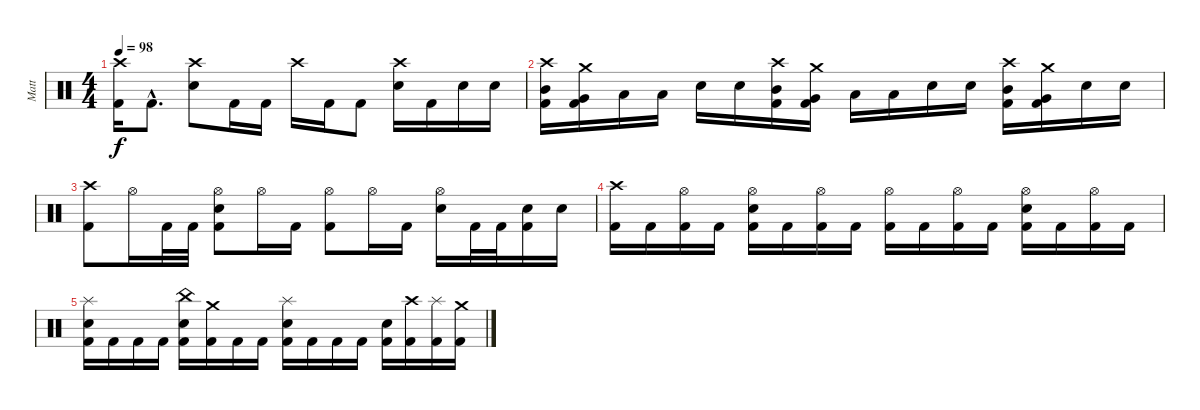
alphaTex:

\track ("Matt" "Matt") {instrument percussion}
\staff {score}
\articulation defaults
\ts (4 4)
\tempo 98
\clef neutral
\ks c
("Crash high (hit)" "Kick (hit) 2").16{dy f} "Kick (hit) 2"{hac}.8{d} ("Crash high (hit)" "Electric Snare (hit)").8 "Kick (hit) 2".16 "Kick (hit) 2".16 "Crash high (hit)".16 "Kick (hit) 2".16 "Kick (hit) 2".8 ("Crash high (hit)" "Electric Snare (hit)").16 "Kick (hit) 2".16 "Electric Snare (hit)".16 "Electric Snare (hit)".16 |
("Crash high (hit)" "Mid Tom (hit)" "Kick (hit) 2").16 ("Crash medium (hit)" "Very Low Tom (hit)" "Kick (hit) 2").16 "Low Floor Tom (hit)".16 "Low Tom (hit)".16 "Electric Snare (hit)".16 "Electric Snare (hit)".16 ("Crash high (hit)" "Mid Tom (hit)" "Kick (hit) 2").16 ("Crash medium (hit)" "Very Low Tom (hit)" "Kick (hit) 2").16 "Low Floor Tom (hit)".16 "Low Tom (hit)".16 "Electric Snare (hit)".16 "Electric Snare (hit)".16 ("Crash high (hit)" "Mid Tom (hit)" "Kick (hit) 2").16 ("Crash medium (hit)" "Very Low Tom (hit)" "Kick (hit) 2").16 "Electric Snare (hit)".16 "Electric Snare (hit)".16 |
("Crash high (hit)" "Kick (hit) 2").8 "Hi-Hat (open)".16 "Kick (hit) 2".32 "Kick (hit) 2".32 ("Hi-Hat (open)" "Electric Snare (hit)" "Kick (hit) 2").8 "Hi-Hat (open)".16 "Kick (hit) 2".16 ("Hi-Hat (open)" "Kick (hit) 2").8 "Hi-Hat (open)".16 "Kick (hit) 2".16 ("Hi-Hat (open)" "Electric Snare (hit)").16 "Kick (hit) 2".32 "Kick (hit) 2".32 ("Electric Snare (hit)" "Kick (hit) 2").16 "Electric Snare (hit)".16 |
("Crash high (hit)" "Kick (hit) 2").16 "Kick (hit) 2".16 ("Hi-Hat (open)" "Kick (hit) 2").16 "Kick (hit) 2".16 ("Hi-Hat (open)" "Electric Snare (hit)" "Kick (hit) 2").16 "Kick (hit) 2".16 ("Hi-Hat (open)" "Kick (hit) 2").16 "Kick (hit) 2".16 ("Hi-Hat (open)" "Kick (hit) 2").16 "Kick (hit) 2".16 ("Hi-Hat (open)" "Kick (hit) 2").16 "Kick (hit) 2".16 ("Hi-Hat (open)" "Electric Snare (hit)" "Kick (hit) 2").16 "Kick (hit) 2".16 ("Hi-Hat (open)" "Kick (hit) 2").16 "Kick (hit) 2".16 |
("Splash (hit)" "Electric Snare (hit)" "Kick (hit) 2").16 "Kick (hit) 2".16 "Kick (hit) 2".16 "Kick (hit) 2".16 ("China (hit)" "Electric Snare (hit)" "Kick (hit) 2").16 ("Crash medium (hit)" "Kick (hit) 2").16 "Kick (hit) 2".16 "Kick (hit) 2".16 ("Splash (hit)" "Electric Snare (hit)" "Kick (hit) 2").16 "Kick (hit) 2".16 "Kick (hit) 2".16 "Kick (hit) 2".16 ("Electric Snare (hit)" "Kick (hit) 2").16 ("Crash high (hit)" "Kick (hit) 2").16 ("Splash (hit)" "Kick (hit) 2").16 ("Crash medium (hit)" "Kick (hit) 2").16
